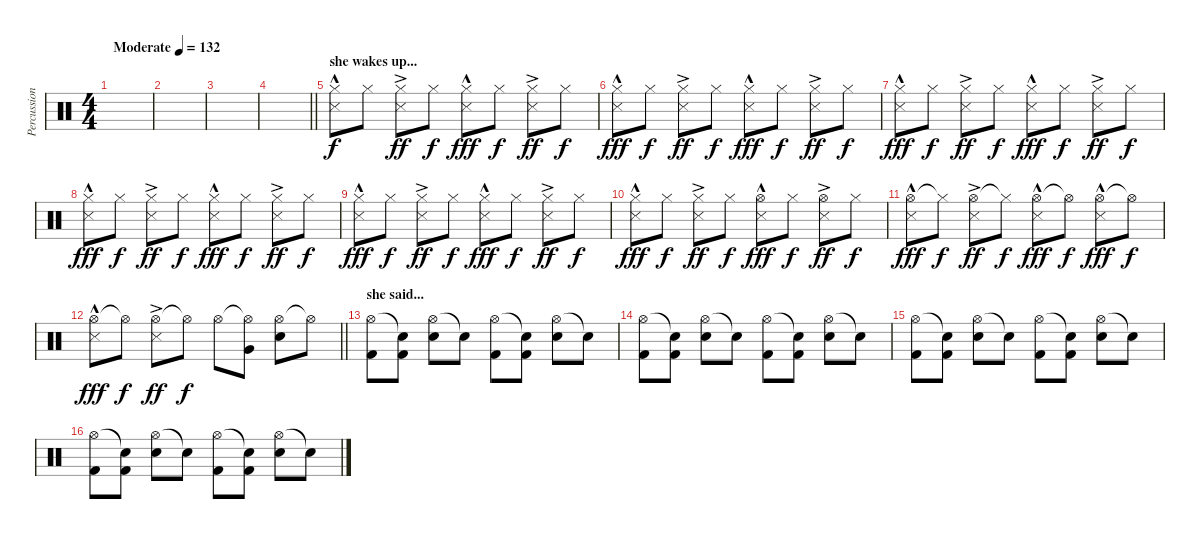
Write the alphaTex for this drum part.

\track ("Percussioni" "Percussion") {instrument percussion}
\staff {score}
\articulation defaults
\ts (4 4)
\tempo (132 "Moderate")
\clef neutral
\ks c
|
|
|
\barLineRight lightlight
|
\section ("" "she wakes up...")
("Hi-Hat (closed)" "Snare (side stick) 3"{hac}).8{volume 8} "Hi-Hat (closed)".8{dy f volume 13} ("Hi-Hat (closed)" "Snare (side stick) 3"{ac}).8{dy ff} "Hi-Hat (closed)".8{dy f} ("Hi-Hat (closed)" "Snare (side stick) 3"{hac}).8{dy fff} "Hi-Hat (closed)".8{dy f} ("Hi-Hat (closed)" "Snare (side stick) 3"{ac}).8{dy ff} "Hi-Hat (closed)".8{dy f} |
("Hi-Hat (closed)" "Snare (side stick) 3"{hac}).8{dy fff} "Hi-Hat (closed)".8{dy f} ("Hi-Hat (closed)" "Snare (side stick) 3"{ac}).8{dy ff} "Hi-Hat (closed)".8{dy f} ("Hi-Hat (closed)" "Snare (side stick) 3"{hac}).8{dy fff} "Hi-Hat (closed)".8{dy f} ("Hi-Hat (closed)" "Snare (side stick) 3"{ac}).8{dy ff} "Hi-Hat (closed)".8{dy f} |
("Hi-Hat (closed)" "Snare (side stick) 3"{hac}).8{dy fff} "Hi-Hat (closed)".8{dy f} ("Hi-Hat (closed)" "Snare (side stick) 3"{ac}).8{dy ff} "Hi-Hat (closed)".8{dy f} ("Hi-Hat (closed)" "Snare (side stick) 3"{hac}).8{dy fff} "Hi-Hat (closed)".8{dy f} ("Hi-Hat (closed)" "Snare (side stick) 3"{ac}).8{dy ff} "Hi-Hat (closed)".8{dy f} |
("Hi-Hat (closed)" "Snare (side stick) 3"{hac}).8{dy fff} "Hi-Hat (closed)".8{dy f} ("Hi-Hat (closed)" "Snare (side stick) 3"{ac}).8{dy ff} "Hi-Hat (closed)".8{dy f} ("Hi-Hat (closed)" "Snare (side stick) 3"{hac}).8{dy fff} "Hi-Hat (closed)".8{dy f} ("Hi-Hat (closed)" "Snare (side stick) 3"{ac}).8{dy ff} "Hi-Hat (closed)".8{dy f} |
("Hi-Hat (closed)" "Snare (side stick) 3"{hac}).8{dy fff} "Hi-Hat (closed)".8{dy f} ("Hi-Hat (closed)" "Snare (side stick) 3"{ac}).8{dy ff} "Hi-Hat (closed)".8{dy f} ("Hi-Hat (closed)" "Snare (side stick) 3"{hac}).8{dy fff} "Hi-Hat (closed)".8{dy f} ("Hi-Hat (closed)" "Snare (side stick) 3"{ac}).8{dy ff} "Hi-Hat (closed)".8{dy f} |
("Hi-Hat (closed)" "Snare (side stick) 3"{hac}).8{dy fff} "Hi-Hat (closed)".8{dy f} ("Hi-Hat (closed)" "Snare (side stick) 3"{ac}).8{dy ff} "Hi-Hat (closed)".8{dy f} ("Hi-Hat (open)" "Snare (side stick) 3"{hac}).8{dy fff} "Hi-Hat (closed)".8{dy f} ("Hi-Hat (open)" "Snare (side stick) 3"{ac}).8{dy ff} "Hi-Hat (closed)".8{dy f} |
("Hi-Hat (open)" "Snare (side stick) 3"{hac}).8{dy fff} "Hi-Hat (closed)"{t}.8{dy f} ("Hi-Hat (open)" "Snare (side stick) 3"{ac}).8{dy ff} "Hi-Hat (closed)"{t}.8{dy f} ("Hi-Hat (open)" "Snare (side stick) 3"{hac}).8{dy fff} "Hi-Hat (open)"{t}.8{dy f} ("Hi-Hat (open)" "Snare (side stick) 3"{hac}).8{dy fff} "Hi-Hat (open)"{t}.8{dy f} |
\barLineRight lightlight
("Hi-Hat (open)" "Snare (side stick) 3"{hac}).8{dy fff} "Hi-Hat (open)"{t}.8{dy f} ("Hi-Hat (open)" "Snare (side stick) 3"{ac}).8{dy ff} "Hi-Hat (open)"{t}.8{dy f} "Hi-Hat (open)".8 ("Hi-Hat (open)"{t} "Very Low Tom (hit)").8 ("Hi-Hat (open)" "Snare (hit) 2").8 "Hi-Hat (open)"{t}.8 |
\section ("" "she said...")
("Hi-Hat (open)" "Kick (hit) 2").8 ("Snare (hit)"{t} "Kick (hit) 2").8 ("Hi-Hat (open)" "Snare (hit) 2").8 "Snare (hit)"{t}.8 ("Hi-Hat (open)" "Kick (hit) 2").8 ("Snare (hit)"{t} "Kick (hit) 2").8 ("Hi-Hat (open)" "Snare (hit) 2").8 "Snare (hit)"{t}.8 |
("Hi-Hat (open)" "Kick (hit) 2").8 ("Snare (hit)"{t} "Kick (hit) 2").8 ("Hi-Hat (open)" "Snare (hit) 2").8 "Snare (hit)"{t}.8 ("Hi-Hat (open)" "Kick (hit) 2").8 ("Snare (hit)"{t} "Kick (hit) 2").8 ("Hi-Hat (open)" "Snare (hit) 2").8 "Snare (hit)"{t}.8 |
("Hi-Hat (open)" "Kick (hit) 2").8 ("Snare (hit)"{t} "Kick (hit) 2").8 ("Hi-Hat (open)" "Snare (hit) 2").8 "Snare (hit)"{t}.8 ("Hi-Hat (open)" "Kick (hit) 2").8 ("Snare (hit)"{t} "Kick (hit) 2").8 ("Hi-Hat (open)" "Snare (hit) 2").8 "Snare (hit)"{t}.8 |
("Hi-Hat (open)" "Kick (hit) 2").8 ("Snare (hit)"{t} "Kick (hit) 2").8 ("Hi-Hat (open)" "Snare (hit) 2").8 "Snare (hit)"{t}.8 ("Hi-Hat (open)" "Kick (hit) 2").8 ("Snare (hit)"{t} "Kick (hit) 2").8 ("Hi-Hat (open)" "Snare (hit) 2").8 "Snare (hit)"{t}.8
